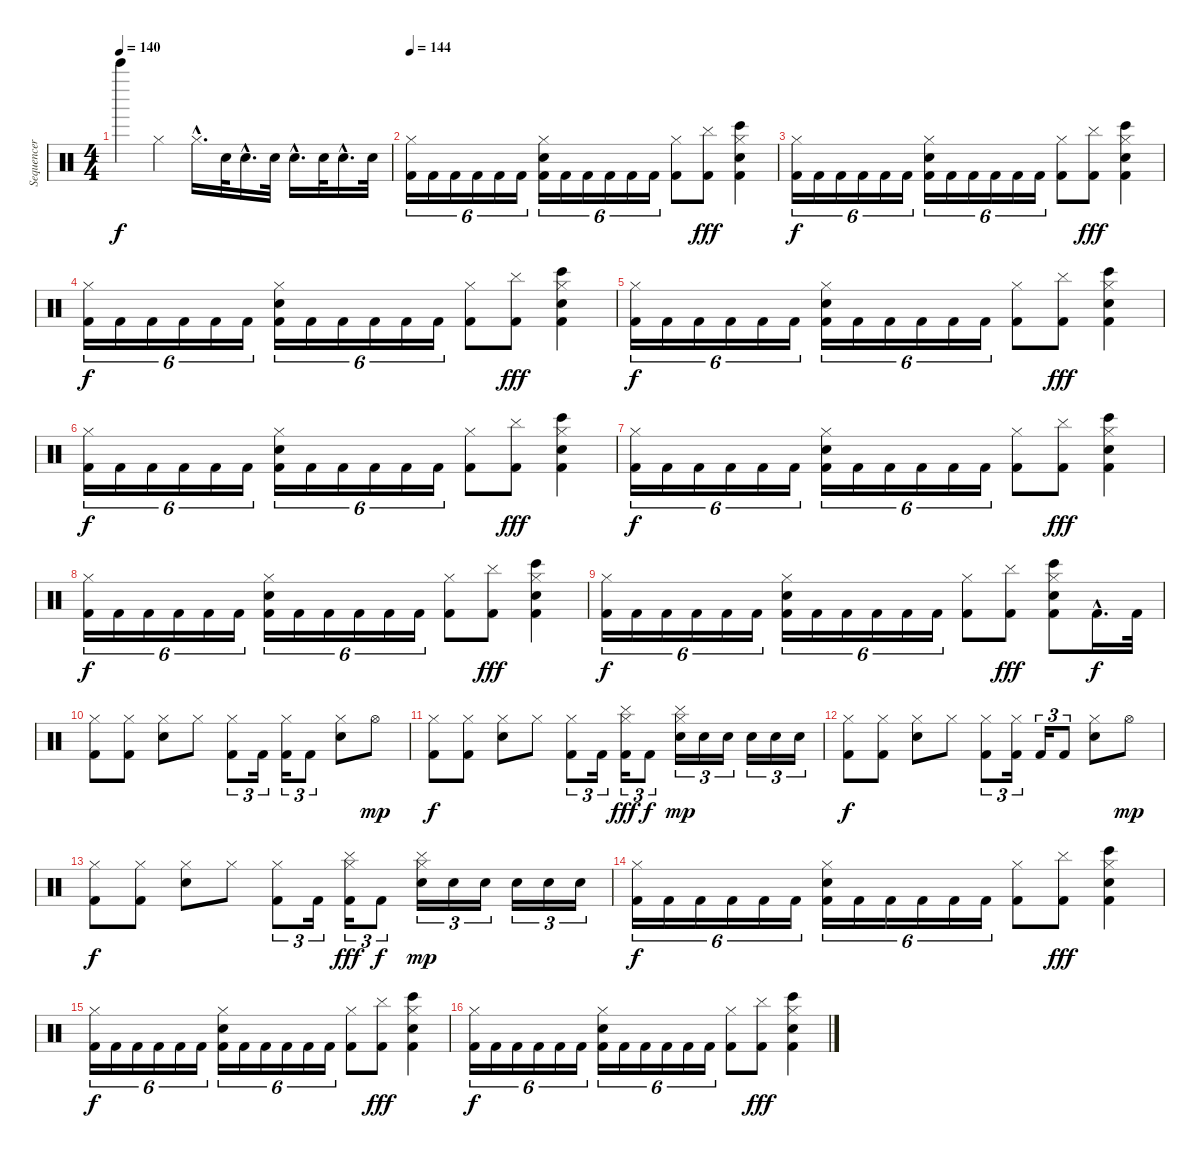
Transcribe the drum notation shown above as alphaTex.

\track ("Sequencer" "Sequencer") {instrument percussion}
\staff {score}
\articulation defaults
\ts (4 4)
\tempo 140
\clef neutral
\ks c "Bell Tree (hit)".4{dy f} "Hi-Hat (closed)".4 "Hi-Hat (closed)"{hac}.16{d} "Electric Snare (hit)".32 "Electric Snare (hit)"{hac}.16{d} "Electric Snare (hit)".32 "Electric Snare (hit)"{hac}.16{d} "Electric Snare (hit)".32 "Electric Snare (hit)"{hac}.16{d} "Electric Snare (hit)".32
|
\tempo 144
("Hi-Hat (closed)" "Kick (hit) 2").16{tu (6 4)} "Kick (hit) 2".16{tu (6 4)} "Kick (hit) 2".16{tu (6 4)} "Kick (hit) 2".16{tu (6 4)} "Kick (hit) 2".16{tu (6 4)} "Kick (hit) 2".16{tu (6 4)} ("Hi-Hat (closed)" "Electric Snare (hit)" "Kick (hit) 2").16{tu (6 4)} "Kick (hit) 2".16{tu (6 4)} "Kick (hit) 2".16{tu (6 4)} "Kick (hit) 2".16{tu (6 4)} "Kick (hit) 2".16{tu (6 4)} "Kick (hit) 2".16{tu (6 4)} ("Hi-Hat (closed)" "Kick (hit) 2").8 ("Cymbal (hit)" "Kick (hit) 2").8{dy fff} ("Hi-Hat (closed)" "Electric Snare (hit)" "Bongo High (hit)" "Kick (hit) 2").4 |
("Hi-Hat (closed)" "Kick (hit) 2").16{tu (6 4) dy f} "Kick (hit) 2".16{tu (6 4)} "Kick (hit) 2".16{tu (6 4)} "Kick (hit) 2".16{tu (6 4)} "Kick (hit) 2".16{tu (6 4)} "Kick (hit) 2".16{tu (6 4)} ("Hi-Hat (closed)" "Electric Snare (hit)" "Kick (hit) 2").16{tu (6 4)} "Kick (hit) 2".16{tu (6 4)} "Kick (hit) 2".16{tu (6 4)} "Kick (hit) 2".16{tu (6 4)} "Kick (hit) 2".16{tu (6 4)} "Kick (hit) 2".16{tu (6 4)} ("Hi-Hat (closed)" "Kick (hit) 2").8 ("Cymbal (hit)" "Kick (hit) 2").8{dy fff} ("Hi-Hat (closed)" "Electric Snare (hit)" "Bongo High (hit)" "Kick (hit) 2").4 |
("Hi-Hat (closed)" "Kick (hit) 2").16{tu (6 4) dy f} "Kick (hit) 2".16{tu (6 4)} "Kick (hit) 2".16{tu (6 4)} "Kick (hit) 2".16{tu (6 4)} "Kick (hit) 2".16{tu (6 4)} "Kick (hit) 2".16{tu (6 4)} ("Hi-Hat (closed)" "Electric Snare (hit)" "Kick (hit) 2").16{tu (6 4)} "Kick (hit) 2".16{tu (6 4)} "Kick (hit) 2".16{tu (6 4)} "Kick (hit) 2".16{tu (6 4)} "Kick (hit) 2".16{tu (6 4)} "Kick (hit) 2".16{tu (6 4)} ("Hi-Hat (closed)" "Kick (hit) 2").8 ("Cymbal (hit)" "Kick (hit) 2").8{dy fff} ("Hi-Hat (closed)" "Electric Snare (hit)" "Bongo High (hit)" "Kick (hit) 2").4 |
("Hi-Hat (closed)" "Kick (hit) 2").16{tu (6 4) dy f} "Kick (hit) 2".16{tu (6 4)} "Kick (hit) 2".16{tu (6 4)} "Kick (hit) 2".16{tu (6 4)} "Kick (hit) 2".16{tu (6 4)} "Kick (hit) 2".16{tu (6 4)} ("Hi-Hat (closed)" "Electric Snare (hit)" "Kick (hit) 2").16{tu (6 4)} "Kick (hit) 2".16{tu (6 4)} "Kick (hit) 2".16{tu (6 4)} "Kick (hit) 2".16{tu (6 4)} "Kick (hit) 2".16{tu (6 4)} "Kick (hit) 2".16{tu (6 4)} ("Hi-Hat (closed)" "Kick (hit) 2").8 ("Cymbal (hit)" "Kick (hit) 2").8{dy fff} ("Hi-Hat (closed)" "Electric Snare (hit)" "Bongo High (hit)" "Kick (hit) 2").4 |
("Hi-Hat (closed)" "Kick (hit) 2").16{tu (6 4) dy f} "Kick (hit) 2".16{tu (6 4)} "Kick (hit) 2".16{tu (6 4)} "Kick (hit) 2".16{tu (6 4)} "Kick (hit) 2".16{tu (6 4)} "Kick (hit) 2".16{tu (6 4)} ("Hi-Hat (closed)" "Electric Snare (hit)" "Kick (hit) 2").16{tu (6 4)} "Kick (hit) 2".16{tu (6 4)} "Kick (hit) 2".16{tu (6 4)} "Kick (hit) 2".16{tu (6 4)} "Kick (hit) 2".16{tu (6 4)} "Kick (hit) 2".16{tu (6 4)} ("Hi-Hat (closed)" "Kick (hit) 2").8 ("Cymbal (hit)" "Kick (hit) 2").8{dy fff} ("Hi-Hat (closed)" "Electric Snare (hit)" "Bongo High (hit)" "Kick (hit) 2").4 |
("Hi-Hat (closed)" "Kick (hit) 2").16{tu (6 4) dy f} "Kick (hit) 2".16{tu (6 4)} "Kick (hit) 2".16{tu (6 4)} "Kick (hit) 2".16{tu (6 4)} "Kick (hit) 2".16{tu (6 4)} "Kick (hit) 2".16{tu (6 4)} ("Hi-Hat (closed)" "Electric Snare (hit)" "Kick (hit) 2").16{tu (6 4)} "Kick (hit) 2".16{tu (6 4)} "Kick (hit) 2".16{tu (6 4)} "Kick (hit) 2".16{tu (6 4)} "Kick (hit) 2".16{tu (6 4)} "Kick (hit) 2".16{tu (6 4)} ("Hi-Hat (closed)" "Kick (hit) 2").8 ("Cymbal (hit)" "Kick (hit) 2").8{dy fff} ("Hi-Hat (closed)" "Electric Snare (hit)" "Bongo High (hit)" "Kick (hit) 2").4 |
("Hi-Hat (closed)" "Kick (hit) 2").16{tu (6 4) dy f} "Kick (hit) 2".16{tu (6 4)} "Kick (hit) 2".16{tu (6 4)} "Kick (hit) 2".16{tu (6 4)} "Kick (hit) 2".16{tu (6 4)} "Kick (hit) 2".16{tu (6 4)} ("Hi-Hat (closed)" "Electric Snare (hit)" "Kick (hit) 2").16{tu (6 4)} "Kick (hit) 2".16{tu (6 4)} "Kick (hit) 2".16{tu (6 4)} "Kick (hit) 2".16{tu (6 4)} "Kick (hit) 2".16{tu (6 4)} "Kick (hit) 2".16{tu (6 4)} ("Hi-Hat (closed)" "Kick (hit) 2").8 ("Cymbal (hit)" "Kick (hit) 2").8{dy fff} ("Hi-Hat (closed)" "Electric Snare (hit)" "Bongo High (hit)" "Kick (hit) 2").4 |
("Hi-Hat (closed)" "Kick (hit) 2").16{tu (6 4) dy f} "Kick (hit) 2".16{tu (6 4)} "Kick (hit) 2".16{tu (6 4)} "Kick (hit) 2".16{tu (6 4)} "Kick (hit) 2".16{tu (6 4)} "Kick (hit) 2".16{tu (6 4)} ("Hi-Hat (closed)" "Electric Snare (hit)" "Kick (hit) 2").16{tu (6 4)} "Kick (hit) 2".16{tu (6 4)} "Kick (hit) 2".16{tu (6 4)} "Kick (hit) 2".16{tu (6 4)} "Kick (hit) 2".16{tu (6 4)} "Kick (hit) 2".16{tu (6 4)} ("Hi-Hat (closed)" "Kick (hit) 2").8 ("Cymbal (hit)" "Kick (hit) 2").8{dy fff} ("Hi-Hat (closed)" "Electric Snare (hit)" "Bongo High (hit)" "Kick (hit) 2").8 "Kick (hit) 2"{hac}.16{d dy f} "Kick (hit) 2".32 |
("Hi-Hat (closed)" "Kick (hit) 2").8 ("Hi-Hat (closed)" "Kick (hit) 2").8 ("Hi-Hat (closed)" "Electric Snare (hit)").8 "Hi-Hat (closed)".8 ("Hi-Hat (closed)" "Kick (hit) 2").8{tu (3 2)} "Kick (hit) 2".16{tu (3 2)} ("Hi-Hat (closed)" "Kick (hit) 2").16{tu (3 2)} "Kick (hit) 2".8{tu (3 2)} ("Hi-Hat (closed)" "Electric Snare (hit)").8 "Hi-Hat (open)".8{dy mp} |
("Hi-Hat (closed)" "Kick (hit) 2").8{dy f} ("Hi-Hat (closed)" "Kick (hit) 2").8 ("Hi-Hat (closed)" "Electric Snare (hit)").8 "Hi-Hat (closed)".8 ("Hi-Hat (closed)" "Kick (hit) 2").8{tu (3 2)} "Kick (hit) 2".16{tu (3 2)} ("Hi-Hat (closed)" "Cymbal (hit)" "Kick (hit) 2").16{tu (3 2) dy fff} "Kick (hit) 2".8{tu (3 2) dy f} ("Hi-Hat (closed)" "Cymbal (hit)" "Electric Snare (hit)").16{tu (3 2) dy mp} "Electric Snare (hit)".16{tu (3 2)} "Electric Snare (hit)".16{tu (3 2)} "Electric Snare (hit)".16{tu (3 2)} "Electric Snare (hit)".16{tu (3 2)} "Electric Snare (hit)".16{tu (3 2)} |
("Hi-Hat (closed)" "Kick (hit) 2").8{dy f} ("Hi-Hat (closed)" "Kick (hit) 2").8 ("Hi-Hat (closed)" "Electric Snare (hit)").8 "Hi-Hat (closed)".8 ("Hi-Hat (closed)" "Kick (hit) 2").8{tu (3 2)} ("Hi-Hat (closed)" "Kick (hit) 2").16{tu (3 2)} "Kick (hit) 2".16{tu (3 2)} "Kick (hit) 2".8{tu (3 2)} ("Hi-Hat (closed)" "Electric Snare (hit)").8 "Hi-Hat (open)".8{dy mp} |
("Hi-Hat (closed)" "Kick (hit) 2").8{dy f} ("Hi-Hat (closed)" "Kick (hit) 2").8 ("Hi-Hat (closed)" "Electric Snare (hit)").8 "Hi-Hat (closed)".8 ("Hi-Hat (closed)" "Kick (hit) 2").8{tu (3 2)} "Kick (hit) 2".16{tu (3 2)} ("Hi-Hat (closed)" "Cymbal (hit)" "Kick (hit) 2").16{tu (3 2) dy fff} "Kick (hit) 2".8{tu (3 2) dy f} ("Hi-Hat (closed)" "Cymbal (hit)" "Electric Snare (hit)").16{tu (3 2) dy mp} "Electric Snare (hit)".16{tu (3 2)} "Electric Snare (hit)".16{tu (3 2)} "Electric Snare (hit)".16{tu (3 2)} "Electric Snare (hit)".16{tu (3 2)} "Electric Snare (hit)".16{tu (3 2)} |
("Hi-Hat (closed)" "Kick (hit) 2").16{tu (6 4) dy f} "Kick (hit) 2".16{tu (6 4)} "Kick (hit) 2".16{tu (6 4)} "Kick (hit) 2".16{tu (6 4)} "Kick (hit) 2".16{tu (6 4)} "Kick (hit) 2".16{tu (6 4)} ("Hi-Hat (closed)" "Electric Snare (hit)" "Kick (hit) 2").16{tu (6 4)} "Kick (hit) 2".16{tu (6 4)} "Kick (hit) 2".16{tu (6 4)} "Kick (hit) 2".16{tu (6 4)} "Kick (hit) 2".16{tu (6 4)} "Kick (hit) 2".16{tu (6 4)} ("Hi-Hat (closed)" "Kick (hit) 2").8 ("Cymbal (hit)" "Kick (hit) 2").8{dy fff} ("Hi-Hat (closed)" "Electric Snare (hit)" "Bongo High (hit)" "Kick (hit) 2").4 |
("Hi-Hat (closed)" "Kick (hit) 2").16{tu (6 4) dy f} "Kick (hit) 2".16{tu (6 4)} "Kick (hit) 2".16{tu (6 4)} "Kick (hit) 2".16{tu (6 4)} "Kick (hit) 2".16{tu (6 4)} "Kick (hit) 2".16{tu (6 4)} ("Hi-Hat (closed)" "Electric Snare (hit)" "Kick (hit) 2").16{tu (6 4)} "Kick (hit) 2".16{tu (6 4)} "Kick (hit) 2".16{tu (6 4)} "Kick (hit) 2".16{tu (6 4)} "Kick (hit) 2".16{tu (6 4)} "Kick (hit) 2".16{tu (6 4)} ("Hi-Hat (closed)" "Kick (hit) 2").8 ("Cymbal (hit)" "Kick (hit) 2").8{dy fff} ("Hi-Hat (closed)" "Electric Snare (hit)" "Bongo High (hit)" "Kick (hit) 2").4 |
("Hi-Hat (closed)" "Kick (hit) 2").16{tu (6 4) dy f} "Kick (hit) 2".16{tu (6 4)} "Kick (hit) 2".16{tu (6 4)} "Kick (hit) 2".16{tu (6 4)} "Kick (hit) 2".16{tu (6 4)} "Kick (hit) 2".16{tu (6 4)} ("Hi-Hat (closed)" "Electric Snare (hit)" "Kick (hit) 2").16{tu (6 4)} "Kick (hit) 2".16{tu (6 4)} "Kick (hit) 2".16{tu (6 4)} "Kick (hit) 2".16{tu (6 4)} "Kick (hit) 2".16{tu (6 4)} "Kick (hit) 2".16{tu (6 4)} ("Hi-Hat (closed)" "Kick (hit) 2").8 ("Cymbal (hit)" "Kick (hit) 2").8{dy fff} ("Hi-Hat (closed)" "Electric Snare (hit)" "Bongo High (hit)" "Kick (hit) 2").4
